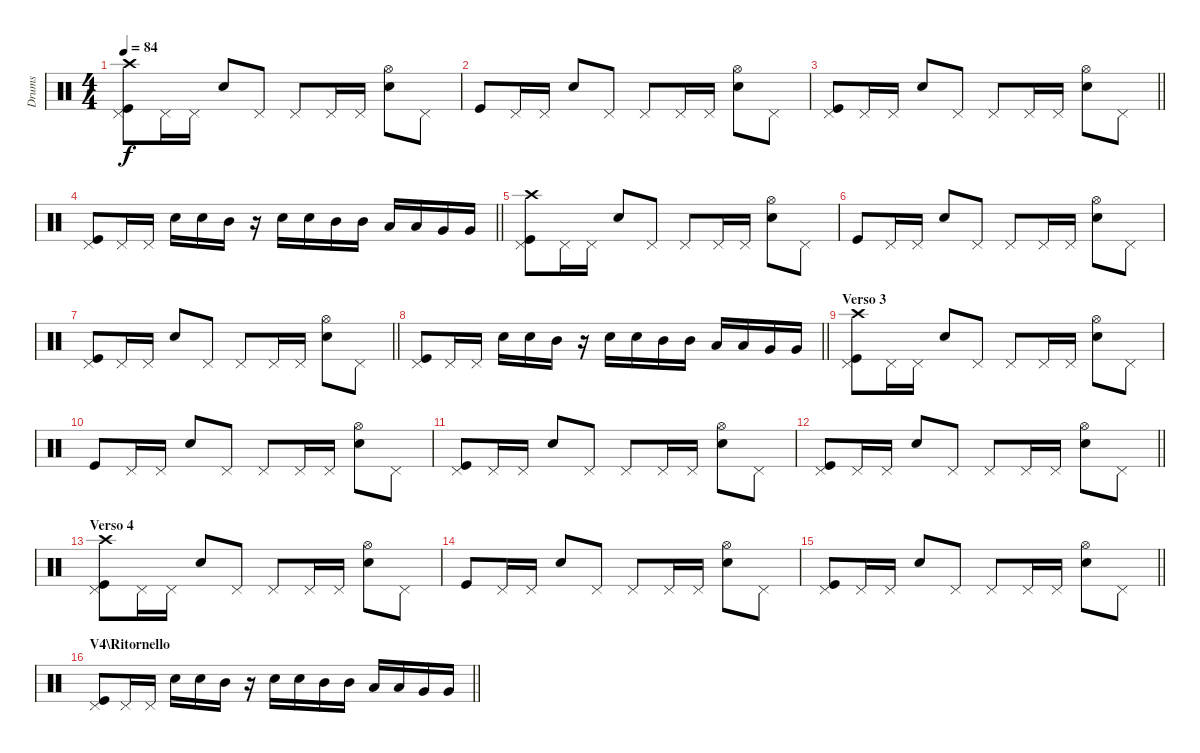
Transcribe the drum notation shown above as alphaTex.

\track ("Drums" "Drums") {instrument percussion}
\staff {score}
\articulation defaults
\ts (4 4)
\tempo 84
\clef neutral
\ks c
("Pedal Hi-Hat (hit)" "Kick (hit)" "Crash high (hit)").8{dy f} "Pedal Hi-Hat (hit)".16 "Pedal Hi-Hat (hit)".16 "Snare (hit) 2".8 "Pedal Hi-Hat (hit)".8 "Pedal Hi-Hat (hit)".8 "Pedal Hi-Hat (hit)".16 "Pedal Hi-Hat (hit)".16 ("Hi-Hat (open)" "Snare (hit) 2").8 "Pedal Hi-Hat (hit)".8 |
"Kick (hit)".8 "Pedal Hi-Hat (hit)".16 "Pedal Hi-Hat (hit)".16 "Snare (hit) 2".8 "Pedal Hi-Hat (hit)".8 "Pedal Hi-Hat (hit)".8 "Pedal Hi-Hat (hit)".16 "Pedal Hi-Hat (hit)".16 ("Hi-Hat (open)" "Snare (hit) 2").8 "Pedal Hi-Hat (hit)".8 |
\barLineRight lightlight
("Pedal Hi-Hat (hit)" "Kick (hit)").8 "Pedal Hi-Hat (hit)".16 "Pedal Hi-Hat (hit)".16 "Snare (hit) 2".8 "Pedal Hi-Hat (hit)".8 "Pedal Hi-Hat (hit)".8 "Pedal Hi-Hat (hit)".16 "Pedal Hi-Hat (hit)".16 ("Hi-Hat (open)" "Snare (hit) 2").8 "Pedal Hi-Hat (hit)".8 |
\barLineRight lightlight
("Pedal Hi-Hat (hit)" "Kick (hit)").8 "Pedal Hi-Hat (hit)".16 "Pedal Hi-Hat (hit)".16 "Snare (hit) 2".16 "Snare (hit) 2".16 "Mid Tom (hit)".16 r.16 "Snare (hit) 2".16 "Snare (hit) 2".16 "Mid Tom (hit)".16 "Mid Tom (hit)".16 "Low Tom (hit)".16 "Low Tom (hit)".16 "Very Low Tom (hit)".16 "Very Low Tom (hit)".16 |
("Pedal Hi-Hat (hit)" "Kick (hit)" "Crash high (hit)").8 "Pedal Hi-Hat (hit)".16 "Pedal Hi-Hat (hit)".16 "Snare (hit) 2".8 "Pedal Hi-Hat (hit)".8 "Pedal Hi-Hat (hit)".8 "Pedal Hi-Hat (hit)".16 "Pedal Hi-Hat (hit)".16 ("Hi-Hat (open)" "Snare (hit) 2").8 "Pedal Hi-Hat (hit)".8 |
"Kick (hit)".8 "Pedal Hi-Hat (hit)".16 "Pedal Hi-Hat (hit)".16 "Snare (hit) 2".8 "Pedal Hi-Hat (hit)".8 "Pedal Hi-Hat (hit)".8 "Pedal Hi-Hat (hit)".16 "Pedal Hi-Hat (hit)".16 ("Hi-Hat (open)" "Snare (hit) 2").8 "Pedal Hi-Hat (hit)".8 |
\barLineRight lightlight
("Pedal Hi-Hat (hit)" "Kick (hit)").8 "Pedal Hi-Hat (hit)".16 "Pedal Hi-Hat (hit)".16 "Snare (hit) 2".8 "Pedal Hi-Hat (hit)".8 "Pedal Hi-Hat (hit)".8 "Pedal Hi-Hat (hit)".16 "Pedal Hi-Hat (hit)".16 ("Hi-Hat (open)" "Snare (hit) 2").8 "Pedal Hi-Hat (hit)".8 |
\barLineRight lightlight
("Pedal Hi-Hat (hit)" "Kick (hit)").8 "Pedal Hi-Hat (hit)".16 "Pedal Hi-Hat (hit)".16 "Snare (hit) 2".16 "Snare (hit) 2".16 "Mid Tom (hit)".16 r.16 "Snare (hit) 2".16 "Snare (hit) 2".16 "Mid Tom (hit)".16 "Mid Tom (hit)".16 "Low Tom (hit)".16 "Low Tom (hit)".16 "Very Low Tom (hit)".16 "Very Low Tom (hit)".16 |
\section ("" "Verso 3")
("Pedal Hi-Hat (hit)" "Kick (hit)" "Crash high (hit)").8 "Pedal Hi-Hat (hit)".16 "Pedal Hi-Hat (hit)".16 "Snare (hit) 2".8 "Pedal Hi-Hat (hit)".8 "Pedal Hi-Hat (hit)".8 "Pedal Hi-Hat (hit)".16 "Pedal Hi-Hat (hit)".16 ("Hi-Hat (open)" "Snare (hit) 2").8 "Pedal Hi-Hat (hit)".8 |
"Kick (hit)".8 "Pedal Hi-Hat (hit)".16 "Pedal Hi-Hat (hit)".16 "Snare (hit) 2".8 "Pedal Hi-Hat (hit)".8 "Pedal Hi-Hat (hit)".8 "Pedal Hi-Hat (hit)".16 "Pedal Hi-Hat (hit)".16 ("Hi-Hat (open)" "Snare (hit) 2").8 "Pedal Hi-Hat (hit)".8 |
("Pedal Hi-Hat (hit)" "Kick (hit)").8 "Pedal Hi-Hat (hit)".16 "Pedal Hi-Hat (hit)".16 "Snare (hit) 2".8 "Pedal Hi-Hat (hit)".8 "Pedal Hi-Hat (hit)".8 "Pedal Hi-Hat (hit)".16 "Pedal Hi-Hat (hit)".16 ("Hi-Hat (open)" "Snare (hit) 2").8 "Pedal Hi-Hat (hit)".8 |
\barLineRight lightlight
("Pedal Hi-Hat (hit)" "Kick (hit)").8 "Pedal Hi-Hat (hit)".16 "Pedal Hi-Hat (hit)".16 "Snare (hit) 2".8 "Pedal Hi-Hat (hit)".8 "Pedal Hi-Hat (hit)".8 "Pedal Hi-Hat (hit)".16 "Pedal Hi-Hat (hit)".16 ("Hi-Hat (open)" "Snare (hit) 2").8 "Pedal Hi-Hat (hit)".8 |
\section ("" "Verso 4")
("Pedal Hi-Hat (hit)" "Kick (hit)" "Crash high (hit)").8 "Pedal Hi-Hat (hit)".16 "Pedal Hi-Hat (hit)".16 "Snare (hit) 2".8 "Pedal Hi-Hat (hit)".8 "Pedal Hi-Hat (hit)".8 "Pedal Hi-Hat (hit)".16 "Pedal Hi-Hat (hit)".16 ("Hi-Hat (open)" "Snare (hit) 2").8 "Pedal Hi-Hat (hit)".8 |
"Kick (hit)".8 "Pedal Hi-Hat (hit)".16 "Pedal Hi-Hat (hit)".16 "Snare (hit) 2".8 "Pedal Hi-Hat (hit)".8 "Pedal Hi-Hat (hit)".8 "Pedal Hi-Hat (hit)".16 "Pedal Hi-Hat (hit)".16 ("Hi-Hat (open)" "Snare (hit) 2").8 "Pedal Hi-Hat (hit)".8 |
\barLineRight lightlight
("Pedal Hi-Hat (hit)" "Kick (hit)").8 "Pedal Hi-Hat (hit)".16 "Pedal Hi-Hat (hit)".16 "Snare (hit) 2".8 "Pedal Hi-Hat (hit)".8 "Pedal Hi-Hat (hit)".8 "Pedal Hi-Hat (hit)".16 "Pedal Hi-Hat (hit)".16 ("Hi-Hat (open)" "Snare (hit) 2").8 "Pedal Hi-Hat (hit)".8 |
\section ("" "V4\\Ritornello")
\barLineRight lightlight
("Pedal Hi-Hat (hit)" "Kick (hit)").8 "Pedal Hi-Hat (hit)".16 "Pedal Hi-Hat (hit)".16 "Snare (hit) 2".16 "Snare (hit) 2".16 "Mid Tom (hit)".16 r.16 "Snare (hit) 2".16 "Snare (hit) 2".16 "Mid Tom (hit)".16 "Mid Tom (hit)".16 "Low Tom (hit)".16 "Low Tom (hit)".16 "Very Low Tom (hit)".16 "Very Low Tom (hit)".16
